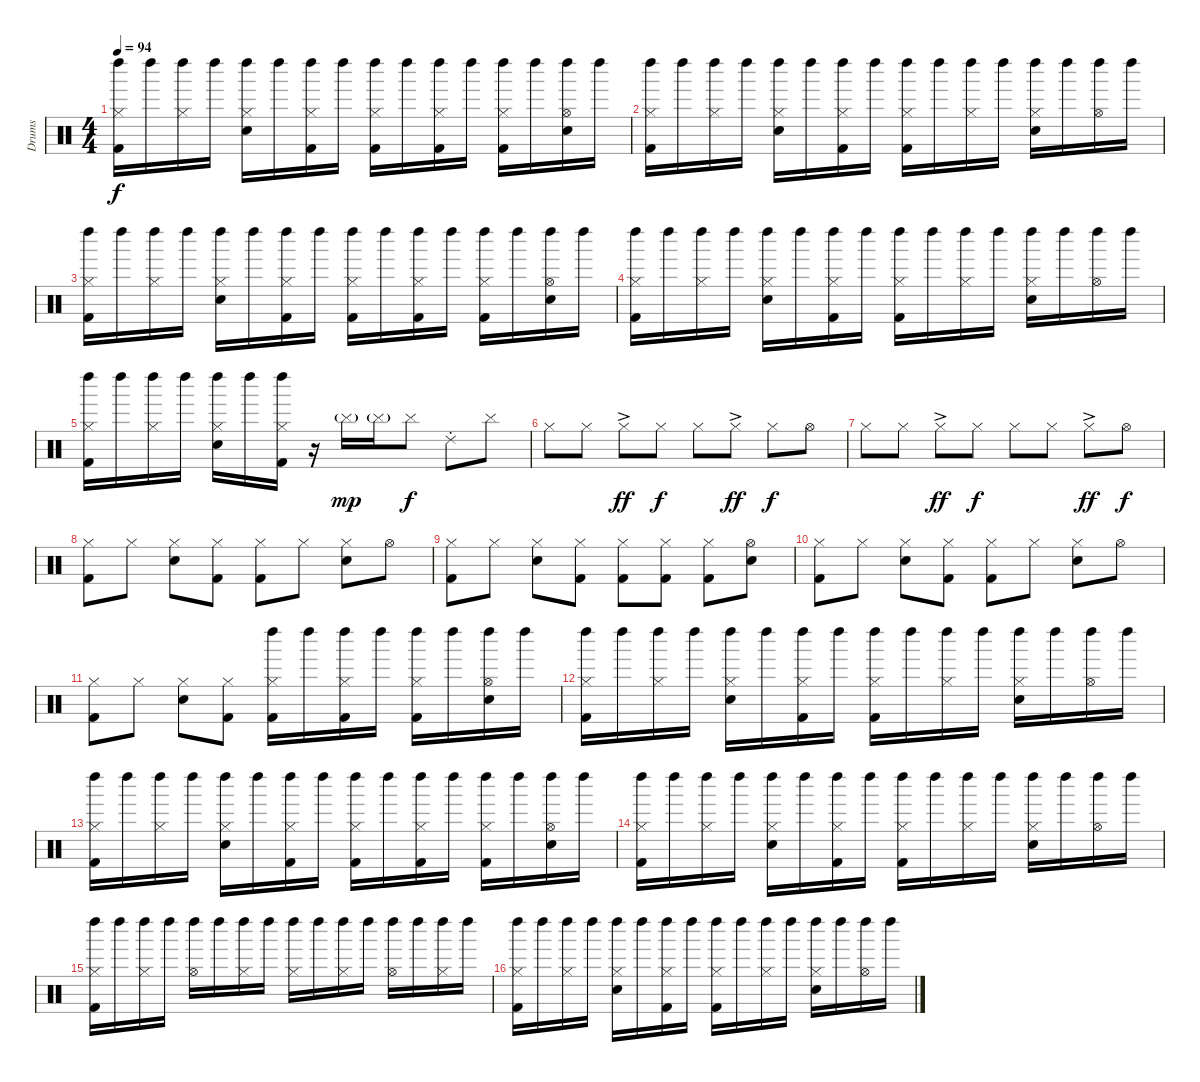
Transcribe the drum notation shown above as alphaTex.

\track ("Drums" "Drums") {instrument percussion}
\staff {score}
\articulation defaults
\ts (4 4)
\tempo 94
\clef neutral
\ks c
("Left Maraca (hit)" "Hi-Hat (closed)" "Kick (hit) 2").16{dy f} "Left Maraca (hit)".16 ("Left Maraca (hit)" "Hi-Hat (closed)").16 "Left Maraca (hit)".16 ("Left Maraca (hit)" "Hi-Hat (closed)" "Snare (hit) 2").16 "Left Maraca (hit)".16 ("Left Maraca (hit)" "Hi-Hat (closed)" "Kick (hit) 2").16 "Left Maraca (hit)".16 ("Left Maraca (hit)" "Hi-Hat (closed)" "Kick (hit) 2").16 "Left Maraca (hit)".16 ("Left Maraca (hit)" "Hi-Hat (closed)" "Kick (hit) 2").16 "Left Maraca (hit)".16 ("Left Maraca (hit)" "Hi-Hat (closed)" "Kick (hit) 2").16 "Left Maraca (hit)".16 ("Left Maraca (hit)" "Hi-Hat (open)" "Snare (hit) 2").16 "Left Maraca (hit)".16 |
("Left Maraca (hit)" "Hi-Hat (closed)" "Kick (hit) 2").16 "Left Maraca (hit)".16 ("Left Maraca (hit)" "Hi-Hat (closed)").16 "Left Maraca (hit)".16 ("Left Maraca (hit)" "Hi-Hat (closed)" "Snare (hit) 2").16 "Left Maraca (hit)".16 ("Left Maraca (hit)" "Hi-Hat (closed)" "Kick (hit) 2").16 "Left Maraca (hit)".16 ("Left Maraca (hit)" "Hi-Hat (closed)" "Kick (hit) 2").16 "Left Maraca (hit)".16 ("Left Maraca (hit)" "Hi-Hat (closed)").16 "Left Maraca (hit)".16 ("Left Maraca (hit)" "Hi-Hat (closed)" "Snare (hit) 2").16 "Left Maraca (hit)".16 ("Left Maraca (hit)" "Hi-Hat (open)").16 "Left Maraca (hit)".16 |
("Left Maraca (hit)" "Hi-Hat (closed)" "Kick (hit) 2").16 "Left Maraca (hit)".16 ("Left Maraca (hit)" "Hi-Hat (closed)").16 "Left Maraca (hit)".16 ("Left Maraca (hit)" "Hi-Hat (closed)" "Snare (hit) 2").16 "Left Maraca (hit)".16 ("Left Maraca (hit)" "Hi-Hat (closed)" "Kick (hit) 2").16 "Left Maraca (hit)".16 ("Left Maraca (hit)" "Hi-Hat (closed)" "Kick (hit) 2").16 "Left Maraca (hit)".16 ("Left Maraca (hit)" "Hi-Hat (closed)" "Kick (hit) 2").16 "Left Maraca (hit)".16 ("Left Maraca (hit)" "Hi-Hat (closed)" "Kick (hit) 2").16 "Left Maraca (hit)".16 ("Left Maraca (hit)" "Hi-Hat (open)" "Snare (hit) 2").16 "Left Maraca (hit)".16 |
("Left Maraca (hit)" "Hi-Hat (closed)" "Kick (hit) 2").16 "Left Maraca (hit)".16 ("Left Maraca (hit)" "Hi-Hat (closed)").16 "Left Maraca (hit)".16 ("Left Maraca (hit)" "Hi-Hat (closed)" "Snare (hit) 2").16 "Left Maraca (hit)".16 ("Left Maraca (hit)" "Hi-Hat (closed)" "Kick (hit) 2").16 "Left Maraca (hit)".16 ("Left Maraca (hit)" "Hi-Hat (closed)" "Kick (hit) 2").16 "Left Maraca (hit)".16 ("Left Maraca (hit)" "Hi-Hat (closed)").16 "Left Maraca (hit)".16 ("Left Maraca (hit)" "Hi-Hat (closed)" "Snare (hit) 2").16 "Left Maraca (hit)".16 ("Left Maraca (hit)" "Hi-Hat (open)").16 "Left Maraca (hit)".16 |
("Left Maraca (hit)" "Hi-Hat (closed)" "Kick (hit) 2").16 "Left Maraca (hit)".16 ("Left Maraca (hit)" "Hi-Hat (closed)").16 "Left Maraca (hit)".16 ("Left Maraca (hit)" "Hi-Hat (closed)" "Snare (hit) 2").16 "Left Maraca (hit)".16 ("Left Maraca (hit)" "Hi-Hat (closed)" "Kick (hit) 2").16 r.16 "Cymbal (hit)"{g}.16{dy mp} "Cymbal (hit)"{g}.16 "Cymbal (hit)".8{dy f} "Ride (choke) 2".8 "Cymbal (hit)".8 |
"Hi-Hat (closed)".8 "Hi-Hat (closed)".8 "Hi-Hat (closed)"{ac}.8{dy ff} "Hi-Hat (closed)".8{dy f} "Hi-Hat (closed)".8 "Hi-Hat (closed)"{ac}.8{dy ff} "Hi-Hat (closed)".8{dy f} "Hi-Hat (open)".8 |
"Hi-Hat (closed)".8 "Hi-Hat (closed)".8 "Hi-Hat (closed)"{ac}.8{dy ff} "Hi-Hat (closed)".8{dy f} "Hi-Hat (closed)".8 "Hi-Hat (closed)".8 "Hi-Hat (closed)"{ac}.8{dy ff} "Hi-Hat (open)".8{dy f} |
("Hi-Hat (closed)" "Kick (hit) 2").8 "Hi-Hat (closed)".8 ("Hi-Hat (closed)" "Snare (hit) 2").8 ("Hi-Hat (closed)" "Kick (hit) 2").8 ("Hi-Hat (closed)" "Kick (hit) 2").8 "Hi-Hat (closed)".8 ("Hi-Hat (closed)" "Snare (hit) 2").8 "Hi-Hat (open)".8 |
("Hi-Hat (closed)" "Kick (hit) 2").8 "Hi-Hat (closed)".8 ("Hi-Hat (closed)" "Snare (hit) 2").8 ("Hi-Hat (closed)" "Kick (hit) 2").8 ("Hi-Hat (closed)" "Kick (hit) 2").8 ("Hi-Hat (closed)" "Kick (hit) 2").8 ("Hi-Hat (closed)" "Kick (hit) 2").8 ("Hi-Hat (open)" "Snare (hit) 2").8 |
("Hi-Hat (closed)" "Kick (hit) 2").8 "Hi-Hat (closed)".8 ("Hi-Hat (closed)" "Snare (hit) 2").8 ("Hi-Hat (closed)" "Kick (hit) 2").8 ("Hi-Hat (closed)" "Kick (hit) 2").8 "Hi-Hat (closed)".8 ("Hi-Hat (closed)" "Snare (hit) 2").8 "Hi-Hat (open)".8 |
("Hi-Hat (closed)" "Kick (hit) 2").8 "Hi-Hat (closed)".8 ("Hi-Hat (closed)" "Snare (hit) 2").8 ("Hi-Hat (closed)" "Kick (hit) 2").8 ("Left Maraca (hit)" "Hi-Hat (closed)" "Kick (hit) 2").16 "Left Maraca (hit)".16 ("Left Maraca (hit)" "Hi-Hat (closed)" "Kick (hit) 2").16 "Left Maraca (hit)".16 ("Left Maraca (hit)" "Hi-Hat (closed)" "Kick (hit) 2").16 "Left Maraca (hit)".16 ("Left Maraca (hit)" "Hi-Hat (open)" "Snare (hit) 2").16 "Left Maraca (hit)".16 |
("Left Maraca (hit)" "Hi-Hat (closed)" "Kick (hit) 2").16 "Left Maraca (hit)".16 ("Left Maraca (hit)" "Hi-Hat (closed)").16 "Left Maraca (hit)".16 ("Left Maraca (hit)" "Hi-Hat (closed)" "Snare (hit) 2").16 "Left Maraca (hit)".16 ("Left Maraca (hit)" "Hi-Hat (closed)" "Kick (hit) 2").16 "Left Maraca (hit)".16 ("Left Maraca (hit)" "Hi-Hat (closed)" "Kick (hit) 2").16 "Left Maraca (hit)".16 ("Left Maraca (hit)" "Hi-Hat (closed)").16 "Left Maraca (hit)".16 ("Left Maraca (hit)" "Hi-Hat (closed)" "Snare (hit) 2").16 "Left Maraca (hit)".16 ("Left Maraca (hit)" "Hi-Hat (open)").16 "Left Maraca (hit)".16 |
("Left Maraca (hit)" "Hi-Hat (closed)" "Kick (hit) 2").16 "Left Maraca (hit)".16 ("Left Maraca (hit)" "Hi-Hat (closed)").16 "Left Maraca (hit)".16 ("Left Maraca (hit)" "Hi-Hat (closed)" "Snare (hit) 2").16 "Left Maraca (hit)".16 ("Left Maraca (hit)" "Hi-Hat (closed)" "Kick (hit) 2").16 "Left Maraca (hit)".16 ("Left Maraca (hit)" "Hi-Hat (closed)" "Kick (hit) 2").16 "Left Maraca (hit)".16 ("Left Maraca (hit)" "Hi-Hat (closed)" "Kick (hit) 2").16 "Left Maraca (hit)".16 ("Left Maraca (hit)" "Hi-Hat (closed)" "Kick (hit) 2").16 "Left Maraca (hit)".16 ("Left Maraca (hit)" "Hi-Hat (open)" "Snare (hit) 2").16 "Left Maraca (hit)".16 |
("Left Maraca (hit)" "Hi-Hat (closed)" "Kick (hit) 2").16 "Left Maraca (hit)".16 ("Left Maraca (hit)" "Hi-Hat (closed)").16 "Left Maraca (hit)".16 ("Left Maraca (hit)" "Hi-Hat (closed)" "Snare (hit) 2").16 "Left Maraca (hit)".16 ("Left Maraca (hit)" "Hi-Hat (closed)" "Kick (hit) 2").16 "Left Maraca (hit)".16 ("Left Maraca (hit)" "Hi-Hat (closed)" "Kick (hit) 2").16 "Left Maraca (hit)".16 ("Left Maraca (hit)" "Hi-Hat (closed)").16 "Left Maraca (hit)".16 ("Left Maraca (hit)" "Hi-Hat (closed)" "Snare (hit) 2").16 "Left Maraca (hit)".16 ("Left Maraca (hit)" "Hi-Hat (open)").16 "Left Maraca (hit)".16 |
("Left Maraca (hit)" "Hi-Hat (closed)" "Kick (hit) 2").16 "Left Maraca (hit)".16 ("Left Maraca (hit)" "Hi-Hat (closed)").16 "Left Maraca (hit)".16 ("Left Maraca (hit)" "Hi-Hat (open)").16 "Left Maraca (hit)".16 ("Left Maraca (hit)" "Hi-Hat (closed)").16 "Left Maraca (hit)".16 ("Left Maraca (hit)" "Hi-Hat (closed)").16 "Left Maraca (hit)".16 ("Left Maraca (hit)" "Hi-Hat (closed)").16 "Left Maraca (hit)".16 ("Left Maraca (hit)" "Hi-Hat (open)").16 "Left Maraca (hit)".16 ("Left Maraca (hit)" "Hi-Hat (closed)").16 "Left Maraca (hit)".16 |
("Left Maraca (hit)" "Hi-Hat (closed)" "Kick (hit) 2").16 "Left Maraca (hit)".16 ("Left Maraca (hit)" "Hi-Hat (closed)").16 "Left Maraca (hit)".16 ("Left Maraca (hit)" "Hi-Hat (closed)" "Snare (hit) 2").16 "Left Maraca (hit)".16 ("Left Maraca (hit)" "Hi-Hat (closed)" "Kick (hit) 2").16 "Left Maraca (hit)".16 ("Left Maraca (hit)" "Hi-Hat (closed)" "Kick (hit) 2").16 "Left Maraca (hit)".16 ("Left Maraca (hit)" "Hi-Hat (closed)").16 "Left Maraca (hit)".16 ("Left Maraca (hit)" "Hi-Hat (closed)" "Snare (hit) 2").16 "Left Maraca (hit)".16 ("Left Maraca (hit)" "Hi-Hat (open)").16 "Left Maraca (hit)".16
